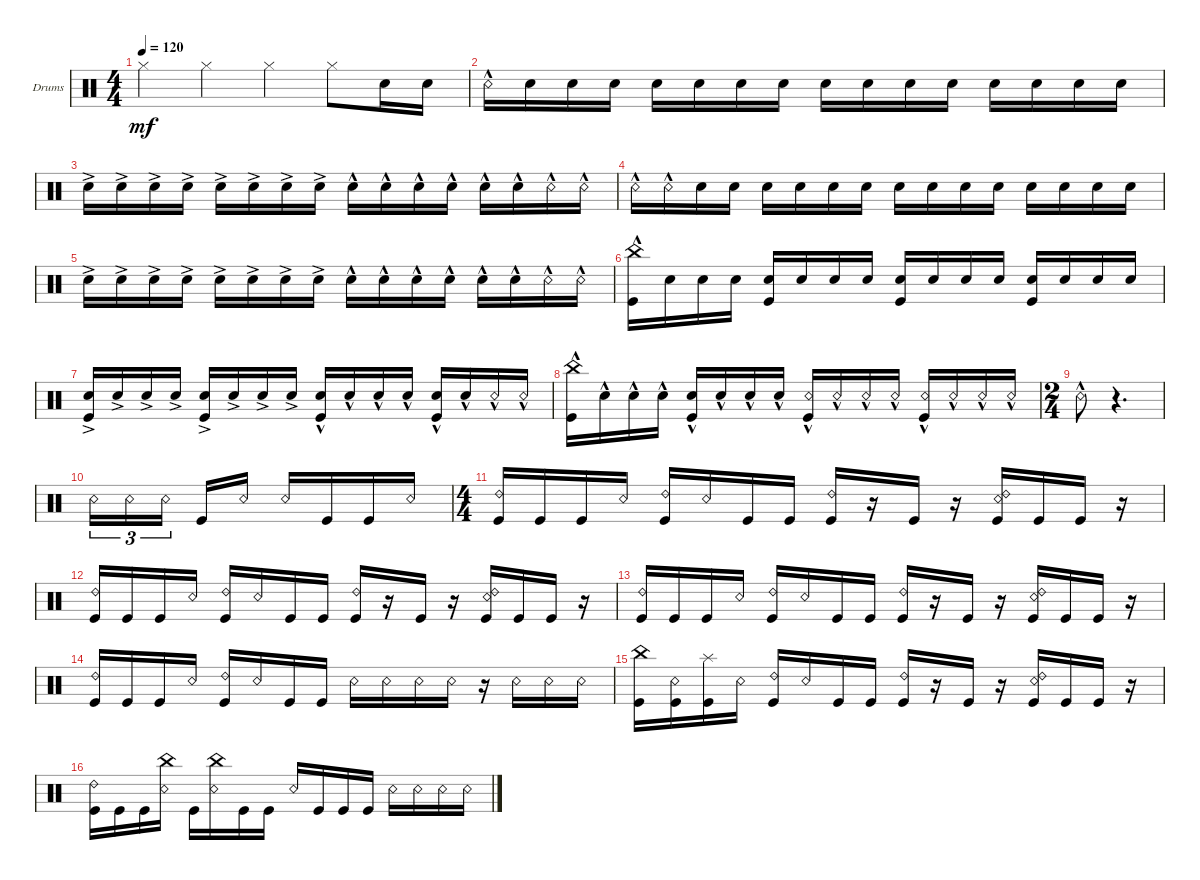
\defaultSystemsLayout 4
\bracketExtendMode groupsimilarinstruments
\firstSystemTrackNameOrientation horizontal
\otherSystemsTrackNameOrientation horizontal
\track ("Drumkit" "Drums") {solo instrument percussion}
\staff {score}
\articulation defaults
\ts (4 4)
\scale
0.245206
\tempo 120
\accidentals auto
\clef neutral
\ottava regular
\simile none
\ks c "Hi-Hat (closed)".4{dy mf} "Hi-Hat (closed)".4 "Hi-Hat (closed)".4 "Hi-Hat (closed)".8 "Snare (hit) 2".16 "Snare (hit) 2".16
|
\scale
0.374026 "Snare (rim shot)"{hac}.16 "Snare (hit) 2".16 "Snare (hit) 2".16 "Snare (hit) 2".16 "Snare (hit) 2".16 "Snare (hit) 2".16 "Snare (hit) 2".16 "Snare (hit) 2".16 "Snare (hit) 2".16 "Snare (hit) 2".16 "Snare (hit) 2".16 "Snare (hit) 2".16 "Snare (hit) 2".16 "Snare (hit) 2".16 "Snare (hit) 2".16 "Snare (hit) 2".16 |
\scale
0.380069 "Snare (hit) 2"{ac}.16 "Snare (hit) 2"{ac}.16 "Snare (hit) 2"{ac}.16 "Snare (hit) 2"{ac}.16 "Snare (hit) 2"{ac}.16 "Snare (hit) 2"{ac}.16 "Snare (hit) 2"{ac}.16 "Snare (hit) 2"{ac}.16 "Snare (hit) 2"{hac}.16 "Snare (hit) 2"{hac}.16 "Snare (hit) 2"{hac}.16 "Snare (hit) 2"{hac}.16 "Snare (hit) 2"{hac}.16 "Snare (hit) 2"{hac}.16 "Snare (rim shot)"{hac}.16 "Snare (rim shot)"{hac}.16 |
"Snare (rim shot)"{hac}.16 "Snare (rim shot)"{hac}.16 "Snare (hit) 2".16 "Snare (hit) 2".16 "Snare (hit) 2".16 "Snare (hit) 2".16 "Snare (hit) 2".16 "Snare (hit) 2".16 "Snare (hit) 2".16 "Snare (hit) 2".16 "Snare (hit) 2".16 "Snare (hit) 2".16 "Snare (hit) 2".16 "Snare (hit) 2".16 "Snare (hit) 2".16 "Snare (hit) 2".16 |
"Snare (hit) 2"{ac}.16 "Snare (hit) 2"{ac}.16 "Snare (hit) 2"{ac}.16 "Snare (hit) 2"{ac}.16 "Snare (hit) 2"{ac}.16 "Snare (hit) 2"{ac}.16 "Snare (hit) 2"{ac}.16 "Snare (hit) 2"{ac}.16 "Snare (hit) 2"{hac}.16 "Snare (hit) 2"{hac}.16 "Snare (hit) 2"{hac}.16 "Snare (hit) 2"{hac}.16 "Snare (hit) 2"{hac}.16 "Snare (hit) 2"{hac}.16 "Snare (rim shot)"{hac}.16 "Snare (rim shot)"{hac}.16 |
("China (hit)" "Kick (hit)"{hac}).16 "Snare (hit) 2".16 "Snare (hit) 2".16 "Snare (hit) 2".16 ("Snare (hit) 2" "Kick (hit)").16 "Snare (hit) 2".16 "Snare (hit) 2".16 "Snare (hit) 2".16 ("Snare (hit) 2" "Kick (hit)").16 "Snare (hit) 2".16 "Snare (hit) 2".16 "Snare (hit) 2".16 ("Snare (hit) 2" "Kick (hit)").16 "Snare (hit) 2".16 "Snare (hit) 2".16 "Snare (hit) 2".16 |
("Snare (hit) 2"{ac} "Kick (hit)").16 "Snare (hit) 2"{ac}.16 "Snare (hit) 2"{ac}.16 "Snare (hit) 2"{ac}.16 ("Snare (hit) 2"{ac} "Kick (hit)").16 "Snare (hit) 2"{ac}.16 "Snare (hit) 2"{ac}.16 "Snare (hit) 2"{ac}.16 ("Snare (hit) 2"{hac} "Kick (hit)").16 "Snare (hit) 2"{hac}.16 "Snare (hit) 2"{hac}.16 "Snare (hit) 2"{hac}.16 ("Snare (hit) 2"{hac} "Kick (hit)").16 "Snare (hit) 2"{hac}.16 "Snare (rim shot)"{hac}.16 "Snare (rim shot)"{hac}.16 |
("China (hit)" "Kick (hit)"{hac}).16 "Snare (hit) 2"{hac}.16 "Snare (hit) 2"{hac}.16 "Snare (hit) 2"{hac}.16 ("Snare (hit) 2"{hac} "Kick (hit)"{hac}).16 "Snare (hit) 2"{hac}.16 "Snare (hit) 2"{hac}.16 "Snare (hit) 2"{hac}.16 ("Snare (rim shot)"{hac} "Kick (hit)"{hac}).16 "Snare (rim shot)"{hac}.16 "Snare (rim shot)"{hac}.16 "Snare (rim shot)"{hac}.16 ("Snare (rim shot)"{hac} "Kick (hit)"{hac}).16 "Snare (rim shot)"{hac}.16 "Snare (rim shot)"{hac}.16 "Snare (rim shot)"{hac}.16 |
\ts (2 4)
"Snare (rim shot)"{hac}.8 r.4{d} |
"Snare (rim shot)".16{tu (3 2)} "Snare (rim shot)".16{tu (3 2)} "Snare (rim shot)".16{tu (3 2)} "Kick (hit)".16 "Snare (rim shot)".16 "Snare (rim shot)".16 "Kick (hit)".16 "Kick (hit)".16 "Snare (rim shot)".16 |
\ts (4 4)
("Kick (hit)" "Ride (bell) 2").16 "Kick (hit)".16 "Kick (hit)".16 "Snare (rim shot)".16 ("Kick (hit)" "Ride (bell) 2").16 "Snare (rim shot)".16 "Kick (hit)".16 "Kick (hit)".16 ("Kick (hit)" "Ride (bell) 2").16 r.16 "Kick (hit)".16 r.16 ("Kick (hit)" "Ride (bell) 2" "Snare (rim shot)").16 "Kick (hit)".16 "Kick (hit)".16 r.16 |
("Kick (hit)" "Ride (bell) 2").16 "Kick (hit)".16 "Kick (hit)".16 "Snare (rim shot)".16 ("Kick (hit)" "Ride (bell) 2").16 "Snare (rim shot)".16 "Kick (hit)".16 "Kick (hit)".16 ("Kick (hit)" "Ride (bell) 2").16 r.16 "Kick (hit)".16 r.16 ("Kick (hit)" "Ride (bell) 2" "Snare (rim shot)").16 "Kick (hit)".16 "Kick (hit)".16 r.16 |
("Kick (hit)" "Ride (bell) 2").16 "Kick (hit)".16 "Kick (hit)".16 "Snare (rim shot)".16 ("Kick (hit)" "Ride (bell) 2").16 "Snare (rim shot)".16 "Kick (hit)".16 "Kick (hit)".16 ("Kick (hit)" "Ride (bell) 2").16 r.16 "Kick (hit)".16 r.16 ("Kick (hit)" "Ride (bell) 2" "Snare (rim shot)").16 "Kick (hit)".16 "Kick (hit)".16 r.16 |
("Kick (hit)" "Ride (bell) 2").16 "Kick (hit)".16 "Kick (hit)".16 "Snare (rim shot)".16 ("Kick (hit)" "Ride (bell) 2").16 "Snare (rim shot)".16 "Kick (hit)".16 "Kick (hit)".16 "Snare (rim shot)".16 "Snare (rim shot)".16 "Snare (rim shot)".16 "Snare (rim shot)".16 r.16 "Snare (rim shot)".16 "Snare (rim shot)".16 "Snare (rim shot)".16 |
("Kick (hit)" "China (hit)").16 ("Kick (hit)" "Snare (rim shot)").16 ("Kick (hit)" "Splash (hit)").16 "Snare (rim shot)".16 ("Kick (hit)" "Ride (bell) 2").16 "Snare (rim shot)".16 "Kick (hit)".16 "Kick (hit)".16 ("Kick (hit)" "Ride (bell) 2").16 r.16 "Kick (hit)".16 r.16 ("Kick (hit)" "Snare (rim shot)" "Ride (bell) 2").16 "Kick (hit)".16 "Kick (hit)".16 r.16 |
("Kick (hit)" "Ride (bell) 2").16 "Kick (hit)".16 "Kick (hit)".16 ("Snare (rim shot)" "China (hit)").16 "Kick (hit)".16 ("Snare (rim shot)" "China (hit)").16 "Kick (hit)".16 "Kick (hit)".16 "Snare (rim shot)".16 "Kick (hit)".16 "Kick (hit)".16 "Kick (hit)".16 "Snare (rim shot)".16 "Snare (rim shot)".16 "Snare (rim shot)".16 "Snare (rim shot)".16
